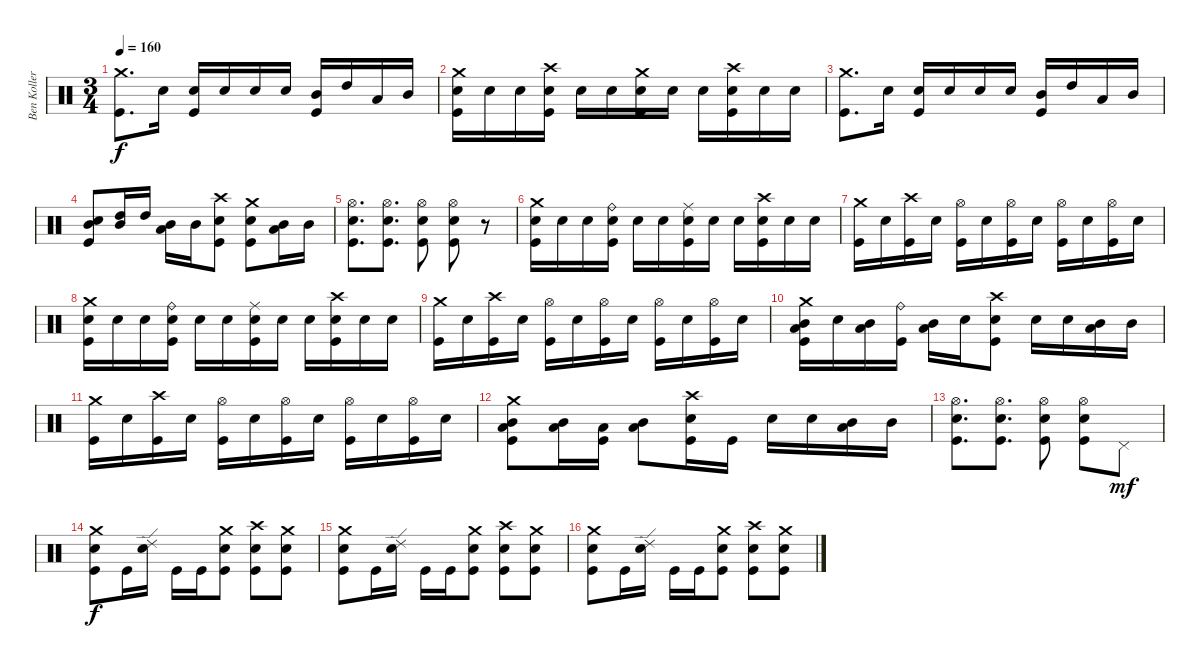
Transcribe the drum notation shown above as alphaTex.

\track ("Ben Koller" "Ben Koller") {instrument percussion}
\staff {score}
\articulation defaults
\ts (3 4)
\tempo 160
\clef neutral
\ks c
("Crash medium (hit)" "Kick (hit)").8{d dy f} "Electric Snare (hit)".16 ("Electric Snare (hit)" "Kick (hit)").16 "Electric Snare (hit)".16 "Electric Snare (hit)".16 "Electric Snare (hit)".16 ("Mid Tom (hit)" "Kick (hit)").16 "High Tom (hit)".16 "Low Tom (hit)".16 "Mid Tom (hit)".16 |
("Crash medium (hit)" "Electric Snare (hit)" "Kick (hit)").16 "Electric Snare (hit)".16 "Electric Snare (hit)".16 ("Crash high (hit)" "Electric Snare (hit)" "Kick (hit)").16 "Electric Snare (hit)".16 "Electric Snare (hit)".16 ("Crash medium (hit)" "Electric Snare (hit)" "Kick (hit)").16 "Electric Snare (hit)".16 "Electric Snare (hit)".16 ("Crash high (hit)" "Electric Snare (hit)" "Kick (hit)").16 "Electric Snare (hit)".16 "Electric Snare (hit)".16 |
("Crash medium (hit)" "Kick (hit)").8{d} "Electric Snare (hit)".16 ("Electric Snare (hit)" "Kick (hit)").16 "Electric Snare (hit)".16 "Electric Snare (hit)".16 "Electric Snare (hit)".16 ("Mid Tom (hit)" "Kick (hit)").16 "High Tom (hit)".16 "Low Tom (hit)".16 "Mid Tom (hit)".16 |
("Mid Tom (hit)" "Electric Snare (hit)" "Kick (hit)").8 ("High Tom (hit)" "Mid Tom (hit)").16 "High Tom (hit)".16 ("Mid Tom (hit)" "Low Tom (hit)").16 "Mid Tom (hit)".16 ("Crash high (hit)" "Electric Snare (hit)" "Kick (hit)").8 ("Crash medium (hit)" "Electric Snare (hit)" "Kick (hit)").8 ("Mid Tom (hit)" "Low Tom (hit)").16 "Mid Tom (hit)".16 |
("Hi-Hat (open)" "Electric Snare (hit)" "Kick (hit)").8{d} ("Hi-Hat (open)" "Electric Snare (hit)" "Kick (hit)").8{d} ("Hi-Hat (open)" "Electric Snare (hit)" "Kick (hit)").8 ("Hi-Hat (open)" "Electric Snare (hit)" "Kick (hit)").8 r.8 |
("Crash medium (hit)" "Electric Snare (hit)" "Kick (hit)").16 "Electric Snare (hit)".16 "Electric Snare (hit)".16 ("Ride (bell)" "Electric Snare (hit)" "Kick (hit)").16 "Electric Snare (hit)".16 "Electric Snare (hit)".16 ("Ride (middle)" "Electric Snare (hit)" "Kick (hit)").16 "Electric Snare (hit)".16 "Electric Snare (hit)".16 ("Crash high (hit)" "Electric Snare (hit)" "Kick (hit)").16 "Electric Snare (hit)".16 "Electric Snare (hit)".16 |
("Crash medium (hit)" "Kick (hit)").16 "Electric Snare (hit)".16 ("Crash high (hit)" "Kick (hit)").16 "Electric Snare (hit)".16 ("Hi-Hat (open)" "Kick (hit)").16 "Electric Snare (hit)".16 ("Hi-Hat (open)" "Kick (hit)").16 "Electric Snare (hit)".16 ("Hi-Hat (open)" "Kick (hit)").16 "Electric Snare (hit)".16 ("Hi-Hat (open)" "Kick (hit)").16 "Electric Snare (hit)".16 |
("Crash medium (hit)" "Electric Snare (hit)" "Kick (hit)").16 "Electric Snare (hit)".16 "Electric Snare (hit)".16 ("Ride (bell)" "Electric Snare (hit)" "Kick (hit)").16 "Electric Snare (hit)".16 "Electric Snare (hit)".16 ("Ride (middle)" "Electric Snare (hit)" "Kick (hit)").16 "Electric Snare (hit)".16 "Electric Snare (hit)".16 ("Crash high (hit)" "Electric Snare (hit)" "Kick (hit)").16 "Electric Snare (hit)".16 "Electric Snare (hit)".16 |
("Crash medium (hit)" "Kick (hit)").16 "Electric Snare (hit)".16 ("Crash high (hit)" "Kick (hit)").16 "Electric Snare (hit)".16 ("Hi-Hat (open)" "Kick (hit)").16 "Electric Snare (hit)".16 ("Hi-Hat (open)" "Kick (hit)").16 "Electric Snare (hit)".16 ("Hi-Hat (open)" "Kick (hit)").16 "Electric Snare (hit)".16 ("Hi-Hat (open)" "Kick (hit)").16 "Electric Snare (hit)".16 |
("Crash medium (hit)" "Mid Tom (hit)" "Low Tom (hit)" "Kick (hit)").16 "Electric Snare (hit)".16 ("Mid Tom (hit)" "Low Tom (hit)").16 ("Ride (bell)" "Kick (hit)").16 ("Mid Tom (hit)" "Low Tom (hit)").16 "Electric Snare (hit)".16 ("Electric Snare (hit)" "Crash high (hit)" "Kick (hit)").8 "Electric Snare (hit)".16 "Electric Snare (hit)".16 ("Mid Tom (hit)" "Low Tom (hit)").16 "Mid Tom (hit)".16 |
("Crash medium (hit)" "Kick (hit)").16 "Electric Snare (hit)".16 ("Crash high (hit)" "Kick (hit)").16 "Electric Snare (hit)".16 ("Hi-Hat (open)" "Kick (hit)").16 "Electric Snare (hit)".16 ("Hi-Hat (open)" "Kick (hit)").16 "Electric Snare (hit)".16 ("Hi-Hat (open)" "Kick (hit)").16 "Electric Snare (hit)".16 ("Hi-Hat (open)" "Kick (hit)").16 "Electric Snare (hit)".16 |
("Crash medium (hit)" "Mid Tom (hit)" "Low Tom (hit)" "Kick (hit)").8 ("Mid Tom (hit)" "Low Tom (hit)").16 ("Low Tom (hit)" "Kick (hit)").16 ("Mid Tom (hit)" "Low Tom (hit)").8 ("Crash high (hit)" "Electric Snare (hit)" "Kick (hit)").16 "Kick (hit)".16 "Electric Snare (hit)".16 "Electric Snare (hit)".16 ("Mid Tom (hit)" "Low Tom (hit)").16 "Mid Tom (hit)".16 |
("Hi-Hat (open)" "Electric Snare (hit)" "Kick (hit)").8{d} ("Hi-Hat (open)" "Electric Snare (hit)" "Kick (hit)").8{d} ("Hi-Hat (open)" "Electric Snare (hit)" "Kick (hit)").8 ("Hi-Hat (open)" "Electric Snare (hit)" "Kick (hit)").8 "Pedal Hi-Hat (hit)".8{dy mf} |
("Crash medium (hit)" "Electric Snare (hit)" "Kick (hit)").8{dy f} "Kick (hit)".16 ("Ride (edge) 2" "Electric Snare (hit)").16 "Kick (hit)".16 "Kick (hit)".16 ("Crash medium (hit)" "Electric Snare (hit)" "Kick (hit)").8 ("Crash high (hit)" "Electric Snare (hit)" "Kick (hit)").8 ("Crash medium (hit)" "Electric Snare (hit)" "Kick (hit)").8 |
("Crash medium (hit)" "Electric Snare (hit)" "Kick (hit)").8 "Kick (hit)".16 ("Ride (edge) 2" "Electric Snare (hit)").16 "Kick (hit)".16 "Kick (hit)".16 ("Crash medium (hit)" "Electric Snare (hit)" "Kick (hit)").8 ("Crash high (hit)" "Electric Snare (hit)" "Kick (hit)").8 ("Crash medium (hit)" "Electric Snare (hit)" "Kick (hit)").8 |
("Crash medium (hit)" "Electric Snare (hit)" "Kick (hit)").8 "Kick (hit)".16 ("Ride (edge) 2" "Electric Snare (hit)").16 "Kick (hit)".16 "Kick (hit)".16 ("Crash medium (hit)" "Electric Snare (hit)" "Kick (hit)").8 ("Crash high (hit)" "Electric Snare (hit)" "Kick (hit)").8 ("Crash medium (hit)" "Electric Snare (hit)" "Kick (hit)").8
